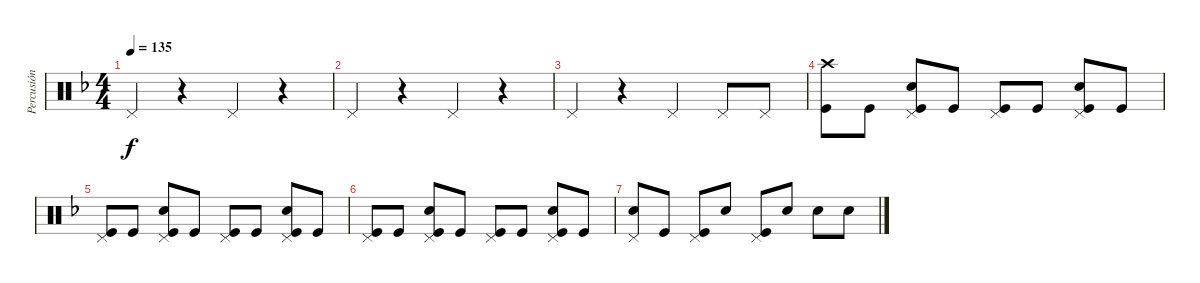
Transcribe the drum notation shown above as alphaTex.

\track ("Percusión" "Percusión") {instrument percussion}
\staff {score}
\articulation defaults
\ts (4 4)
\tempo 135
\clef neutral
\ks dminor "Pedal Hi-Hat (hit)".4{dy f}
r.4 "Pedal Hi-Hat (hit)".4 r.4 |
"Pedal Hi-Hat (hit)".4 r.4 "Pedal Hi-Hat (hit)".4 r.4 |
"Pedal Hi-Hat (hit)".4 r.4 "Pedal Hi-Hat (hit)".4 "Pedal Hi-Hat (hit)".8 "Pedal Hi-Hat (hit)".8 |
("Crash high (hit)" "Kick (hit)").8 "Kick (hit)".8 ("Pedal Hi-Hat (hit)" "Snare (hit) 2" "Kick (hit)").8 "Kick (hit)".8 ("Pedal Hi-Hat (hit)" "Kick (hit)").8 "Kick (hit)".8 ("Pedal Hi-Hat (hit)" "Snare (hit) 2" "Kick (hit)").8 "Kick (hit)".8 |
("Pedal Hi-Hat (hit)" "Kick (hit)").8 "Kick (hit)".8 ("Pedal Hi-Hat (hit)" "Snare (hit) 2" "Kick (hit)").8 "Kick (hit)".8 ("Pedal Hi-Hat (hit)" "Kick (hit)").8 "Kick (hit)".8 ("Pedal Hi-Hat (hit)" "Snare (hit) 2" "Kick (hit)").8 "Kick (hit)".8 |
("Pedal Hi-Hat (hit)" "Kick (hit)").8 "Kick (hit)".8 ("Pedal Hi-Hat (hit)" "Snare (hit) 2" "Kick (hit)").8 "Kick (hit)".8 ("Pedal Hi-Hat (hit)" "Kick (hit)").8 "Kick (hit)".8 ("Pedal Hi-Hat (hit)" "Snare (hit) 2" "Kick (hit)").8 "Kick (hit)".8 |
("Pedal Hi-Hat (hit)" "Snare (hit) 2").8 "Kick (hit)".8 ("Pedal Hi-Hat (hit)" "Kick (hit)").8 "Snare (hit) 2".8 ("Pedal Hi-Hat (hit)" "Kick (hit)").8 "Snare (hit) 2".8 "Snare (hit) 2".8 "Snare (hit) 2".8
